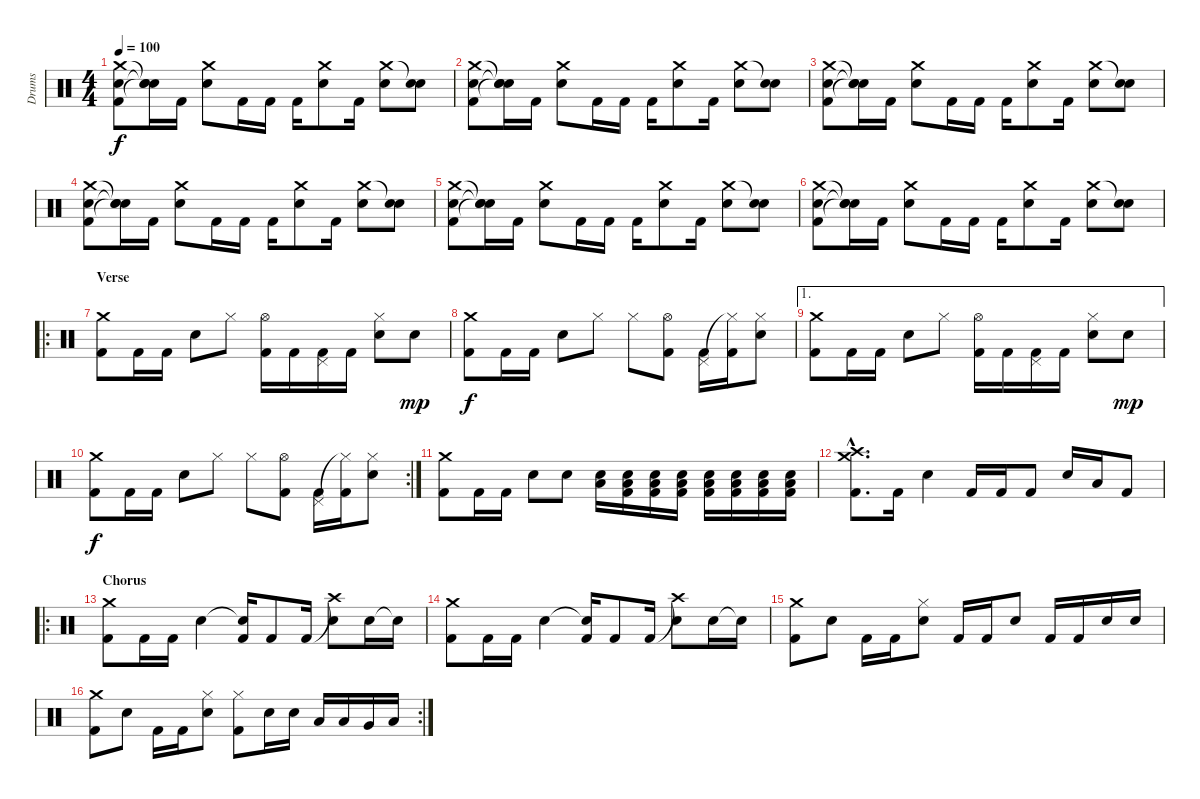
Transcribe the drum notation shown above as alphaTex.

\track ("Drums" "Drums") {instrument percussion}
\staff {score}
\articulation defaults
\ts (4 4)
\tempo 100
\clef neutral
\ks c
("Crash medium (hit)" "Electric Snare (hit)" "Kick (hit) 2").8{dy f} ("Snare (hit)"{t} "Snare (hit)"{t} "Snare (hit)"{t}).16 "Kick (hit) 2".16 ("Crash medium (hit)" "Electric Snare (hit)").8 "Kick (hit) 2".16 "Kick (hit) 2".16 "Kick (hit) 2".16 ("Crash medium (hit)" "Electric Snare (hit)").8 "Kick (hit) 2".16 ("Crash medium (hit)" "Electric Snare (hit)").8 ("Snare (hit)"{t} "Electric Snare (hit)").8 |
("Crash medium (hit)" "Electric Snare (hit)" "Kick (hit) 2").8 ("Snare (hit)"{t} "Snare (hit)"{t} "Snare (hit)"{t}).16 "Kick (hit) 2".16 ("Crash medium (hit)" "Electric Snare (hit)").8 "Kick (hit) 2".16 "Kick (hit) 2".16 "Kick (hit) 2".16 ("Crash medium (hit)" "Electric Snare (hit)").8 "Kick (hit) 2".16 ("Crash medium (hit)" "Electric Snare (hit)").8 ("Snare (hit)"{t} "Electric Snare (hit)").8 |
("Crash medium (hit)" "Electric Snare (hit)" "Kick (hit) 2").8 ("Snare (hit)"{t} "Snare (hit)"{t} "Snare (hit)"{t}).16 "Kick (hit) 2".16 ("Crash medium (hit)" "Electric Snare (hit)").8 "Kick (hit) 2".16 "Kick (hit) 2".16 "Kick (hit) 2".16 ("Crash medium (hit)" "Electric Snare (hit)").8 "Kick (hit) 2".16 ("Crash medium (hit)" "Electric Snare (hit)").8 ("Snare (hit)"{t} "Electric Snare (hit)").8 |
("Crash medium (hit)" "Electric Snare (hit)" "Kick (hit) 2").8 ("Snare (hit)"{t} "Snare (hit)"{t} "Snare (hit)"{t}).16 "Kick (hit) 2".16 ("Crash medium (hit)" "Electric Snare (hit)").8 "Kick (hit) 2".16 "Kick (hit) 2".16 "Kick (hit) 2".16 ("Crash medium (hit)" "Electric Snare (hit)").8 "Kick (hit) 2".16 ("Crash medium (hit)" "Electric Snare (hit)").8 ("Snare (hit)"{t} "Electric Snare (hit)").8 |
("Crash medium (hit)" "Electric Snare (hit)" "Kick (hit) 2").8 ("Snare (hit)"{t} "Snare (hit)"{t} "Snare (hit)"{t}).16 "Kick (hit) 2".16 ("Crash medium (hit)" "Electric Snare (hit)").8 "Kick (hit) 2".16 "Kick (hit) 2".16 "Kick (hit) 2".16 ("Crash medium (hit)" "Electric Snare (hit)").8 "Kick (hit) 2".16 ("Crash medium (hit)" "Electric Snare (hit)").8 ("Snare (hit)"{t} "Electric Snare (hit)").8 |
("Crash medium (hit)" "Electric Snare (hit)" "Kick (hit) 2").8 ("Snare (hit)"{t} "Snare (hit)"{t} "Snare (hit)"{t}).16 "Kick (hit) 2".16 ("Crash medium (hit)" "Electric Snare (hit)").8 "Kick (hit) 2".16 "Kick (hit) 2".16 "Kick (hit) 2".16 ("Crash medium (hit)" "Electric Snare (hit)").8 "Kick (hit) 2".16 ("Crash medium (hit)" "Electric Snare (hit)").8 ("Snare (hit)"{t} "Electric Snare (hit)").8 |
\ro
\section ("" "Verse")
("Crash medium (hit)" "Kick (hit) 2").8 "Kick (hit) 2".16 "Kick (hit) 2".16 "Electric Snare (hit)".8 "Hi-Hat (closed)".8 ("Hi-Hat (open)" "Kick (hit) 2").16 "Kick (hit) 2".16 ("Pedal Hi-Hat (hit)" "Kick (hit) 2").16 "Kick (hit) 2".16 ("Hi-Hat (closed)" "Electric Snare (hit)").8 "Electric Snare (hit)".8{dy mp} |
("Crash medium (hit)" "Kick (hit) 2").8{dy f} "Kick (hit) 2".16 "Kick (hit) 2".16 "Electric Snare (hit)".8 "Hi-Hat (closed)".8 "Hi-Hat (closed)".8 ("Hi-Hat (open)" "Kick (hit) 2").8 ("Pedal Hi-Hat (hit)" "Kick (hit) 2").16 ("Hi-Hat (closed)"{t} "Kick (hit) 2").16 ("Hi-Hat (closed)" "Electric Snare (hit)").8 |
\ae 1
("Crash medium (hit)" "Kick (hit) 2").8 "Kick (hit) 2".16 "Kick (hit) 2".16 "Electric Snare (hit)".8 "Hi-Hat (closed)".8 ("Hi-Hat (open)" "Kick (hit) 2").16 "Kick (hit) 2".16 ("Pedal Hi-Hat (hit)" "Kick (hit) 2").16 "Kick (hit) 2".16 ("Hi-Hat (closed)" "Electric Snare (hit)").8 "Electric Snare (hit)".8{dy mp} |
\rc 2
("Crash medium (hit)" "Kick (hit) 2").8{dy f} "Kick (hit) 2".16 "Kick (hit) 2".16 "Electric Snare (hit)".8 "Hi-Hat (closed)".8 "Hi-Hat (closed)".8 ("Hi-Hat (open)" "Kick (hit) 2").8 ("Pedal Hi-Hat (hit)" "Kick (hit) 2").16 ("Hi-Hat (closed)"{t} "Kick (hit) 2").16 ("Hi-Hat (closed)" "Electric Snare (hit)").8 |
("Crash medium (hit)" "Kick (hit) 2").8 "Kick (hit) 2".16 "Kick (hit) 2".16 "Electric Snare (hit)".8 "Electric Snare (hit)".8 ("Electric Snare (hit)" "Low Floor Tom (hit)").16 ("Electric Snare (hit)" "Low Floor Tom (hit)" "Kick (hit) 2").16 ("Electric Snare (hit)" "Low Floor Tom (hit)" "Kick (hit) 2").16 ("Electric Snare (hit)" "Low Floor Tom (hit)" "Kick (hit) 2").16 ("Electric Snare (hit)" "Low Floor Tom (hit)" "Kick (hit) 2").16 ("Electric Snare (hit)" "Low Floor Tom (hit)" "Kick (hit) 2").16 ("Electric Snare (hit)" "Low Floor Tom (hit)" "Kick (hit) 2").16 ("Electric Snare (hit)" "Low Floor Tom (hit)" "Kick (hit) 2").16 |
("Crash medium (hit)"{hac} "Crash high (hit)"{hac} "Kick (hit) 2"{hac}).8{d} "Kick (hit) 2".16 "Electric Snare (hit)".4 "Kick (hit) 2".16 "Kick (hit) 2".16 "Kick (hit) 2".8 "Electric Snare (hit)".16 "Low Tom (hit)".16 "Kick (hit) 2".8 |
\ro
\section ("" "Chorus")
("Crash medium (hit)" "Kick (hit) 2").8 "Kick (hit) 2".16 "Kick (hit) 2".16 "Electric Snare (hit)".4 ("Electric Snare (hit)"{t} "Kick (hit) 2").16 "Kick (hit) 2".8 "Kick (hit) 2".16 ("Crash high (hit)"{t} "Electric Snare (hit)").8 "Electric Snare (hit)".16 "Snare (hit)"{t}.16 |
("Crash medium (hit)" "Kick (hit) 2").8 "Kick (hit) 2".16 "Kick (hit) 2".16 "Electric Snare (hit)".4 ("Electric Snare (hit)"{t} "Kick (hit) 2").16 "Kick (hit) 2".8 "Kick (hit) 2".16 ("Crash high (hit)"{t} "Electric Snare (hit)").8 "Electric Snare (hit)".16 "Snare (hit)"{t}.16 |
("Crash medium (hit)" "Kick (hit) 2").8 "Electric Snare (hit)".8 "Kick (hit) 2".16 "Kick (hit) 2".16 ("Hi-Hat (closed)" "Electric Snare (hit)").8 "Kick (hit) 2".16 "Kick (hit) 2".16 "Electric Snare (hit)".8 "Kick (hit) 2".16 "Kick (hit) 2".16 "Electric Snare (hit)".16 "Electric Snare (hit)".16 |
\rc 2
("Crash medium (hit)" "Kick (hit) 2").8 "Electric Snare (hit)".8 "Kick (hit) 2".16 "Kick (hit) 2".16 ("Hi-Hat (closed)" "Electric Snare (hit)").8 ("Hi-Hat (closed)" "Kick (hit) 2").8 "Electric Snare (hit)".16 "Electric Snare (hit)".16 "Low Tom (hit)".16 "Low Tom (hit)".16 "Very Low Tom (hit)".16 "Low Floor Tom (hit)".16
